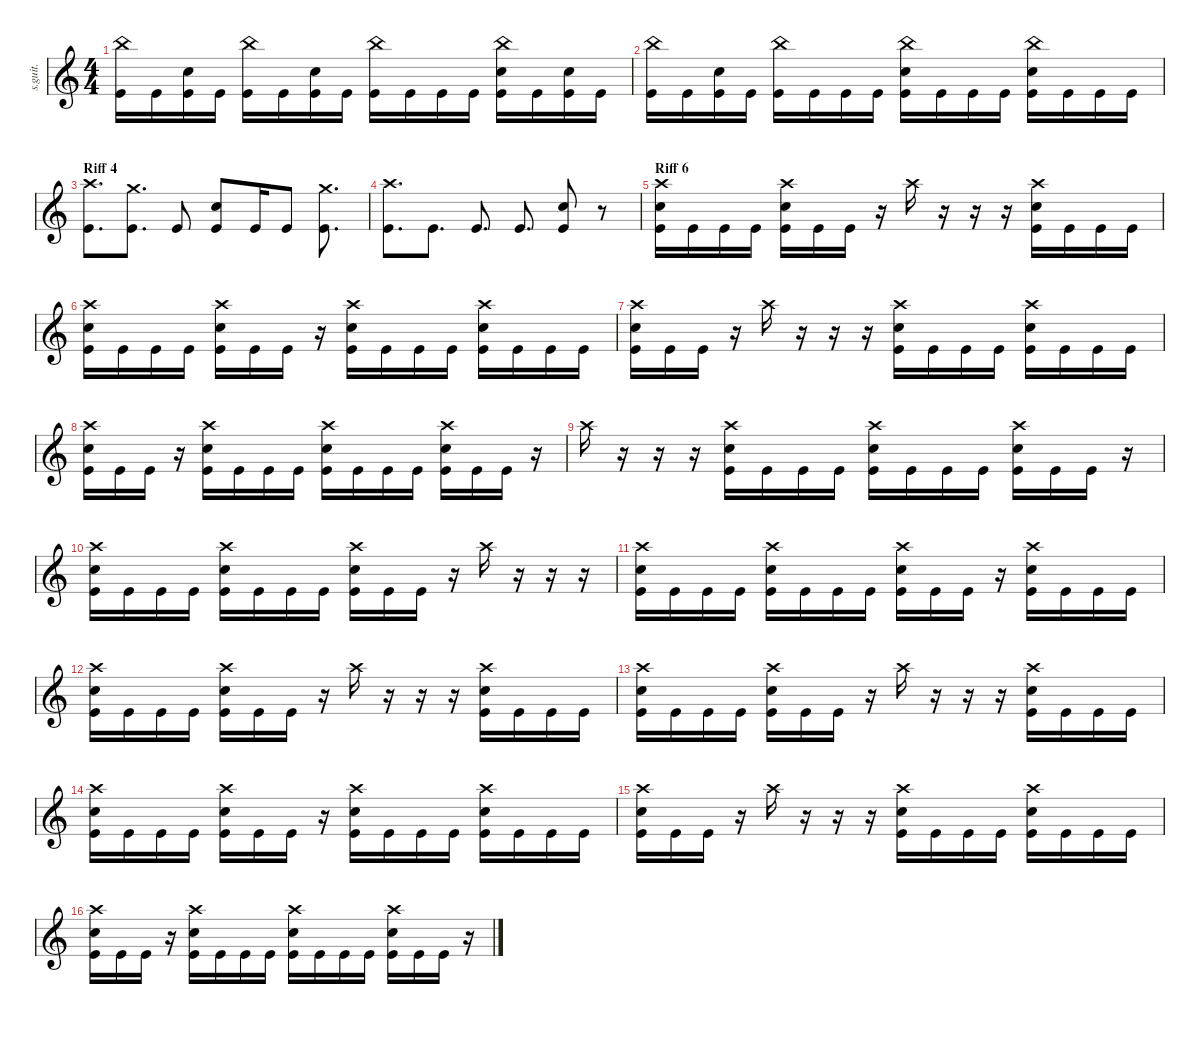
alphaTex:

\defaultSystemsLayout 4
\hideDynamics
\bracketExtendMode nobrackets
\track ("Drumkit" "s.guit.") {instrument percussion}
\staff {score}
\articulation defaults
\ts (4 4)
\tempo (133 hide)
\clef g2
\ks c
("China (hit)" "Kick (hit)").16{lyrics (0 "") lyrics (1 "") lyrics (2 "") lyrics (3 "") lyrics (4 "") dy f} "Kick (hit)".16{lyrics (0 "") lyrics (1 "") lyrics (2 "") lyrics (3 "") lyrics (4 "")} ("Snare (hit) 2" "Kick (hit)").16{lyrics (0 "") lyrics (1 "") lyrics (2 "") lyrics (3 "") lyrics (4 "")} "Kick (hit)".16{lyrics (0 "") lyrics (1 "") lyrics (2 "") lyrics (3 "") lyrics (4 "")} ("China (hit)" "Kick (hit)").16{lyrics (0 "") lyrics (1 "") lyrics (2 "") lyrics (3 "") lyrics (4 "")} "Kick (hit)".16{lyrics (0 "") lyrics (1 "") lyrics (2 "") lyrics (3 "") lyrics (4 "")} ("Snare (hit) 2" "Kick (hit)").16{lyrics (0 "") lyrics (1 "") lyrics (2 "") lyrics (3 "") lyrics (4 "")} "Kick (hit)".16{lyrics (0 "") lyrics (1 "") lyrics (2 "") lyrics (3 "") lyrics (4 "")} ("China (hit)" "Kick (hit)").16{lyrics (0 "") lyrics (1 "") lyrics (2 "") lyrics (3 "") lyrics (4 "")} "Kick (hit)".16{lyrics (0 "") lyrics (1 "") lyrics (2 "") lyrics (3 "") lyrics (4 "")} "Kick (hit)".16{lyrics (0 "") lyrics (1 "") lyrics (2 "") lyrics (3 "") lyrics (4 "")} "Kick (hit)".16{lyrics (0 "") lyrics (1 "") lyrics (2 "") lyrics (3 "") lyrics (4 "")} ("China (hit)" "Snare (hit) 2" "Kick (hit)").16{lyrics (0 "") lyrics (1 "") lyrics (2 "") lyrics (3 "") lyrics (4 "")} "Kick (hit)".16{lyrics (0 "") lyrics (1 "") lyrics (2 "") lyrics (3 "") lyrics (4 "")} ("Snare (hit) 2" "Kick (hit)").16{lyrics (0 "") lyrics (1 "") lyrics (2 "") lyrics (3 "") lyrics (4 "")} "Kick (hit)".16{lyrics (0 "") lyrics (1 "") lyrics (2 "") lyrics (3 "") lyrics (4 "")} |
("China (hit)" "Kick (hit)").16{lyrics (0 "") lyrics (1 "") lyrics (2 "") lyrics (3 "") lyrics (4 "")} "Kick (hit)".16{lyrics (0 "") lyrics (1 "") lyrics (2 "") lyrics (3 "") lyrics (4 "")} ("Snare (hit) 2" "Kick (hit)").16{lyrics (0 "") lyrics (1 "") lyrics (2 "") lyrics (3 "") lyrics (4 "")} "Kick (hit)".16{lyrics (0 "") lyrics (1 "") lyrics (2 "") lyrics (3 "") lyrics (4 "")} ("China (hit)" "Kick (hit)").16{lyrics (0 "") lyrics (1 "") lyrics (2 "") lyrics (3 "") lyrics (4 "")} "Kick (hit)".16{lyrics (0 "") lyrics (1 "") lyrics (2 "") lyrics (3 "") lyrics (4 "")} "Kick (hit)".16{lyrics (0 "") lyrics (1 "") lyrics (2 "") lyrics (3 "") lyrics (4 "")} "Kick (hit)".16{lyrics (0 "") lyrics (1 "") lyrics (2 "") lyrics (3 "") lyrics (4 "")} ("China (hit)" "Snare (hit) 2" "Kick (hit)").16{lyrics (0 "") lyrics (1 "") lyrics (2 "") lyrics (3 "") lyrics (4 "")} "Kick (hit)".16{lyrics (0 "") lyrics (1 "") lyrics (2 "") lyrics (3 "") lyrics (4 "")} "Kick (hit)".16{lyrics (0 "") lyrics (1 "") lyrics (2 "") lyrics (3 "") lyrics (4 "")} "Kick (hit)".16{lyrics (0 "") lyrics (1 "") lyrics (2 "") lyrics (3 "") lyrics (4 "")} ("China (hit)" "Snare (hit) 2" "Kick (hit)").16{lyrics (0 "") lyrics (1 "") lyrics (2 "") lyrics (3 "") lyrics (4 "")} "Kick (hit)".16{lyrics (0 "") lyrics (1 "") lyrics (2 "") lyrics (3 "") lyrics (4 "")} "Kick (hit)".16{lyrics (0 "") lyrics (1 "") lyrics (2 "") lyrics (3 "") lyrics (4 "")} "Kick (hit)".16{lyrics (0 "") lyrics (1 "") lyrics (2 "") lyrics (3 "") lyrics (4 "")} |
\section ("" "Riff 4")
("Crash high (hit)" "Kick (hit)").8{d lyrics (0 "") lyrics (1 "") lyrics (2 "") lyrics (3 "") lyrics (4 "")} ("Crash medium (hit)" "Kick (hit)").8{d lyrics (0 "") lyrics (1 "") lyrics (2 "") lyrics (3 "") lyrics (4 "")} "Kick (hit)".8{lyrics (0 "") lyrics (1 "") lyrics (2 "") lyrics (3 "") lyrics (4 "")} ("Snare (hit) 2" "Kick (hit)").8{lyrics (0 "") lyrics (1 "") lyrics (2 "") lyrics (3 "") lyrics (4 "")} "Kick (hit)".16{lyrics (0 "") lyrics (1 "") lyrics (2 "") lyrics (3 "") lyrics (4 "")} "Kick (hit)".8{lyrics (0 "") lyrics (1 "") lyrics (2 "") lyrics (3 "") lyrics (4 "")} ("Crash medium (hit)" "Kick (hit)").8{d lyrics (0 "") lyrics (1 "") lyrics (2 "") lyrics (3 "") lyrics (4 "")} |
("Crash high (hit)" "Kick (hit)").8{d lyrics (0 "") lyrics (1 "") lyrics (2 "") lyrics (3 "") lyrics (4 "")} "Kick (hit)".8{d lyrics (0 "") lyrics (1 "") lyrics (2 "") lyrics (3 "") lyrics (4 "")} "Kick (hit)".8{d lyrics (0 "") lyrics (1 "") lyrics (2 "") lyrics (3 "") lyrics (4 "")} "Kick (hit)".8{d lyrics (0 "") lyrics (1 "") lyrics (2 "") lyrics (3 "") lyrics (4 "")} ("Snare (hit) 2" "Kick (hit)").8{lyrics (0 "") lyrics (1 "") lyrics (2 "") lyrics (3 "") lyrics (4 "")} r.8 |
\section ("" "Riff 6")
("Crash high (hit)" "Snare (hit) 2" "Kick (hit)").16{lyrics (0 "") lyrics (1 "") lyrics (2 "") lyrics (3 "") lyrics (4 "")} "Kick (hit)".16{lyrics (0 "") lyrics (1 "") lyrics (2 "") lyrics (3 "") lyrics (4 "")} "Kick (hit)".16{lyrics (0 "") lyrics (1 "") lyrics (2 "") lyrics (3 "") lyrics (4 "")} "Kick (hit)".16{lyrics (0 "") lyrics (1 "") lyrics (2 "") lyrics (3 "") lyrics (4 "")} ("Crash high (hit)" "Snare (hit) 2" "Kick (hit)").16{lyrics (0 "") lyrics (1 "") lyrics (2 "") lyrics (3 "") lyrics (4 "")} "Kick (hit)".16{lyrics (0 "") lyrics (1 "") lyrics (2 "") lyrics (3 "") lyrics (4 "")} "Kick (hit)".16{lyrics (0 "") lyrics (1 "") lyrics (2 "") lyrics (3 "") lyrics (4 "")} r.16 "Crash high (hit)".16{lyrics (0 "") lyrics (1 "") lyrics (2 "") lyrics (3 "") lyrics (4 "")} r.16 r.16 r.16 ("Crash high (hit)" "Snare (hit) 2" "Kick (hit)").16{lyrics (0 "") lyrics (1 "") lyrics (2 "") lyrics (3 "") lyrics (4 "")} "Kick (hit)".16{lyrics (0 "") lyrics (1 "") lyrics (2 "") lyrics (3 "") lyrics (4 "")} "Kick (hit)".16{lyrics (0 "") lyrics (1 "") lyrics (2 "") lyrics (3 "") lyrics (4 "")} "Kick (hit)".16{lyrics (0 "") lyrics (1 "") lyrics (2 "") lyrics (3 "") lyrics (4 "")} |
("Crash high (hit)" "Snare (hit) 2" "Kick (hit)").16{lyrics (0 "") lyrics (1 "") lyrics (2 "") lyrics (3 "") lyrics (4 "")} "Kick (hit)".16{lyrics (0 "") lyrics (1 "") lyrics (2 "") lyrics (3 "") lyrics (4 "")} "Kick (hit)".16{lyrics (0 "") lyrics (1 "") lyrics (2 "") lyrics (3 "") lyrics (4 "")} "Kick (hit)".16{lyrics (0 "") lyrics (1 "") lyrics (2 "") lyrics (3 "") lyrics (4 "")} ("Crash high (hit)" "Snare (hit) 2" "Kick (hit)").16{lyrics (0 "") lyrics (1 "") lyrics (2 "") lyrics (3 "") lyrics (4 "")} "Kick (hit)".16{lyrics (0 "") lyrics (1 "") lyrics (2 "") lyrics (3 "") lyrics (4 "")} "Kick (hit)".16{lyrics (0 "") lyrics (1 "") lyrics (2 "") lyrics (3 "") lyrics (4 "")} r.16 ("Crash high (hit)" "Snare (hit) 2" "Kick (hit)").16{lyrics (0 "") lyrics (1 "") lyrics (2 "") lyrics (3 "") lyrics (4 "")} "Kick (hit)".16{lyrics (0 "") lyrics (1 "") lyrics (2 "") lyrics (3 "") lyrics (4 "")} "Kick (hit)".16{lyrics (0 "") lyrics (1 "") lyrics (2 "") lyrics (3 "") lyrics (4 "")} "Kick (hit)".16{lyrics (0 "") lyrics (1 "") lyrics (2 "") lyrics (3 "") lyrics (4 "")} ("Crash high (hit)" "Snare (hit) 2" "Kick (hit)").16{lyrics (0 "") lyrics (1 "") lyrics (2 "") lyrics (3 "") lyrics (4 "")} "Kick (hit)".16{lyrics (0 "") lyrics (1 "") lyrics (2 "") lyrics (3 "") lyrics (4 "")} "Kick (hit)".16{lyrics (0 "") lyrics (1 "") lyrics (2 "") lyrics (3 "") lyrics (4 "")} "Kick (hit)".16{lyrics (0 "") lyrics (1 "") lyrics (2 "") lyrics (3 "") lyrics (4 "")} |
("Crash high (hit)" "Snare (hit) 2" "Kick (hit)").16{lyrics (0 "") lyrics (1 "") lyrics (2 "") lyrics (3 "") lyrics (4 "")} "Kick (hit)".16{lyrics (0 "") lyrics (1 "") lyrics (2 "") lyrics (3 "") lyrics (4 "")} "Kick (hit)".16{lyrics (0 "") lyrics (1 "") lyrics (2 "") lyrics (3 "") lyrics (4 "")} r.16 "Crash high (hit)".16{lyrics (0 "") lyrics (1 "") lyrics (2 "") lyrics (3 "") lyrics (4 "")} r.16 r.16 r.16 ("Crash high (hit)" "Snare (hit) 2" "Kick (hit)").16{lyrics (0 "") lyrics (1 "") lyrics (2 "") lyrics (3 "") lyrics (4 "")} "Kick (hit)".16{lyrics (0 "") lyrics (1 "") lyrics (2 "") lyrics (3 "") lyrics (4 "")} "Kick (hit)".16{lyrics (0 "") lyrics (1 "") lyrics (2 "") lyrics (3 "") lyrics (4 "")} "Kick (hit)".16{lyrics (0 "") lyrics (1 "") lyrics (2 "") lyrics (3 "") lyrics (4 "")} ("Crash high (hit)" "Snare (hit) 2" "Kick (hit)").16{lyrics (0 "") lyrics (1 "") lyrics (2 "") lyrics (3 "") lyrics (4 "")} "Kick (hit)".16{lyrics (0 "") lyrics (1 "") lyrics (2 "") lyrics (3 "") lyrics (4 "")} "Kick (hit)".16{lyrics (0 "") lyrics (1 "") lyrics (2 "") lyrics (3 "") lyrics (4 "")} "Kick (hit)".16{lyrics (0 "") lyrics (1 "") lyrics (2 "") lyrics (3 "") lyrics (4 "")} |
("Crash high (hit)" "Snare (hit) 2" "Kick (hit)").16{lyrics (0 "") lyrics (1 "") lyrics (2 "") lyrics (3 "") lyrics (4 "")} "Kick (hit)".16{lyrics (0 "") lyrics (1 "") lyrics (2 "") lyrics (3 "") lyrics (4 "")} "Kick (hit)".16{lyrics (0 "") lyrics (1 "") lyrics (2 "") lyrics (3 "") lyrics (4 "")} r.16 ("Crash high (hit)" "Snare (hit) 2" "Kick (hit)").16{lyrics (0 "") lyrics (1 "") lyrics (2 "") lyrics (3 "") lyrics (4 "")} "Kick (hit)".16{lyrics (0 "") lyrics (1 "") lyrics (2 "") lyrics (3 "") lyrics (4 "")} "Kick (hit)".16{lyrics (0 "") lyrics (1 "") lyrics (2 "") lyrics (3 "") lyrics (4 "")} "Kick (hit)".16{lyrics (0 "") lyrics (1 "") lyrics (2 "") lyrics (3 "") lyrics (4 "")} ("Crash high (hit)" "Snare (hit) 2" "Kick (hit)").16{lyrics (0 "") lyrics (1 "") lyrics (2 "") lyrics (3 "") lyrics (4 "")} "Kick (hit)".16{lyrics (0 "") lyrics (1 "") lyrics (2 "") lyrics (3 "") lyrics (4 "")} "Kick (hit)".16{lyrics (0 "") lyrics (1 "") lyrics (2 "") lyrics (3 "") lyrics (4 "")} "Kick (hit)".16{lyrics (0 "") lyrics (1 "") lyrics (2 "") lyrics (3 "") lyrics (4 "")} ("Crash high (hit)" "Snare (hit) 2" "Kick (hit)").16{lyrics (0 "") lyrics (1 "") lyrics (2 "") lyrics (3 "") lyrics (4 "")} "Kick (hit)".16{lyrics (0 "") lyrics (1 "") lyrics (2 "") lyrics (3 "") lyrics (4 "")} "Kick (hit)".16{lyrics (0 "") lyrics (1 "") lyrics (2 "") lyrics (3 "") lyrics (4 "")} r.16 |
"Crash high (hit)".16{lyrics (0 "") lyrics (1 "") lyrics (2 "") lyrics (3 "") lyrics (4 "")} r.16 r.16 r.16 ("Crash high (hit)" "Snare (hit) 2" "Kick (hit)").16{lyrics (0 "") lyrics (1 "") lyrics (2 "") lyrics (3 "") lyrics (4 "")} "Kick (hit)".16{lyrics (0 "") lyrics (1 "") lyrics (2 "") lyrics (3 "") lyrics (4 "")} "Kick (hit)".16{lyrics (0 "") lyrics (1 "") lyrics (2 "") lyrics (3 "") lyrics (4 "")} "Kick (hit)".16{lyrics (0 "") lyrics (1 "") lyrics (2 "") lyrics (3 "") lyrics (4 "")} ("Crash high (hit)" "Snare (hit) 2" "Kick (hit)").16{lyrics (0 "") lyrics (1 "") lyrics (2 "") lyrics (3 "") lyrics (4 "")} "Kick (hit)".16{lyrics (0 "") lyrics (1 "") lyrics (2 "") lyrics (3 "") lyrics (4 "")} "Kick (hit)".16{lyrics (0 "") lyrics (1 "") lyrics (2 "") lyrics (3 "") lyrics (4 "")} "Kick (hit)".16{lyrics (0 "") lyrics (1 "") lyrics (2 "") lyrics (3 "") lyrics (4 "")} ("Crash high (hit)" "Snare (hit) 2" "Kick (hit)").16{lyrics (0 "") lyrics (1 "") lyrics (2 "") lyrics (3 "") lyrics (4 "")} "Kick (hit)".16{lyrics (0 "") lyrics (1 "") lyrics (2 "") lyrics (3 "") lyrics (4 "")} "Kick (hit)".16{lyrics (0 "") lyrics (1 "") lyrics (2 "") lyrics (3 "") lyrics (4 "")} r.16 |
("Crash high (hit)" "Snare (hit) 2" "Kick (hit)").16{lyrics (0 "") lyrics (1 "") lyrics (2 "") lyrics (3 "") lyrics (4 "")} "Kick (hit)".16{lyrics (0 "") lyrics (1 "") lyrics (2 "") lyrics (3 "") lyrics (4 "")} "Kick (hit)".16{lyrics (0 "") lyrics (1 "") lyrics (2 "") lyrics (3 "") lyrics (4 "")} "Kick (hit)".16{lyrics (0 "") lyrics (1 "") lyrics (2 "") lyrics (3 "") lyrics (4 "")} ("Crash high (hit)" "Snare (hit) 2" "Kick (hit)").16{lyrics (0 "") lyrics (1 "") lyrics (2 "") lyrics (3 "") lyrics (4 "")} "Kick (hit)".16{lyrics (0 "") lyrics (1 "") lyrics (2 "") lyrics (3 "") lyrics (4 "")} "Kick (hit)".16{lyrics (0 "") lyrics (1 "") lyrics (2 "") lyrics (3 "") lyrics (4 "")} "Kick (hit)".16{lyrics (0 "") lyrics (1 "") lyrics (2 "") lyrics (3 "") lyrics (4 "")} ("Crash high (hit)" "Snare (hit) 2" "Kick (hit)").16{lyrics (0 "") lyrics (1 "") lyrics (2 "") lyrics (3 "") lyrics (4 "")} "Kick (hit)".16{lyrics (0 "") lyrics (1 "") lyrics (2 "") lyrics (3 "") lyrics (4 "")} "Kick (hit)".16{lyrics (0 "") lyrics (1 "") lyrics (2 "") lyrics (3 "") lyrics (4 "")} r.16 "Crash high (hit)".16{lyrics (0 "") lyrics (1 "") lyrics (2 "") lyrics (3 "") lyrics (4 "")} r.16 r.16 r.16 |
("Crash high (hit)" "Snare (hit) 2" "Kick (hit)").16{lyrics (0 "") lyrics (1 "") lyrics (2 "") lyrics (3 "") lyrics (4 "")} "Kick (hit)".16{lyrics (0 "") lyrics (1 "") lyrics (2 "") lyrics (3 "") lyrics (4 "")} "Kick (hit)".16{lyrics (0 "") lyrics (1 "") lyrics (2 "") lyrics (3 "") lyrics (4 "")} "Kick (hit)".16{lyrics (0 "") lyrics (1 "") lyrics (2 "") lyrics (3 "") lyrics (4 "")} ("Crash high (hit)" "Snare (hit) 2" "Kick (hit)").16{lyrics (0 "") lyrics (1 "") lyrics (2 "") lyrics (3 "") lyrics (4 "")} "Kick (hit)".16{lyrics (0 "") lyrics (1 "") lyrics (2 "") lyrics (3 "") lyrics (4 "")} "Kick (hit)".16{lyrics (0 "") lyrics (1 "") lyrics (2 "") lyrics (3 "") lyrics (4 "")} "Kick (hit)".16{lyrics (0 "") lyrics (1 "") lyrics (2 "") lyrics (3 "") lyrics (4 "")} ("Crash high (hit)" "Snare (hit) 2" "Kick (hit)").16{lyrics (0 "") lyrics (1 "") lyrics (2 "") lyrics (3 "") lyrics (4 "")} "Kick (hit)".16{lyrics (0 "") lyrics (1 "") lyrics (2 "") lyrics (3 "") lyrics (4 "")} "Kick (hit)".16{lyrics (0 "") lyrics (1 "") lyrics (2 "") lyrics (3 "") lyrics (4 "")} r.16 ("Crash high (hit)" "Snare (hit) 2" "Kick (hit)").16{lyrics (0 "") lyrics (1 "") lyrics (2 "") lyrics (3 "") lyrics (4 "")} "Kick (hit)".16{lyrics (0 "") lyrics (1 "") lyrics (2 "") lyrics (3 "") lyrics (4 "")} "Kick (hit)".16{lyrics (0 "") lyrics (1 "") lyrics (2 "") lyrics (3 "") lyrics (4 "")} "Kick (hit)".16{lyrics (0 "") lyrics (1 "") lyrics (2 "") lyrics (3 "") lyrics (4 "")} |
("Crash high (hit)" "Snare (hit) 2" "Kick (hit)").16{lyrics (0 "") lyrics (1 "") lyrics (2 "") lyrics (3 "") lyrics (4 "")} "Kick (hit)".16{lyrics (0 "") lyrics (1 "") lyrics (2 "") lyrics (3 "") lyrics (4 "")} "Kick (hit)".16{lyrics (0 "") lyrics (1 "") lyrics (2 "") lyrics (3 "") lyrics (4 "")} "Kick (hit)".16{lyrics (0 "") lyrics (1 "") lyrics (2 "") lyrics (3 "") lyrics (4 "")} ("Crash high (hit)" "Snare (hit) 2" "Kick (hit)").16{lyrics (0 "") lyrics (1 "") lyrics (2 "") lyrics (3 "") lyrics (4 "")} "Kick (hit)".16{lyrics (0 "") lyrics (1 "") lyrics (2 "") lyrics (3 "") lyrics (4 "")} "Kick (hit)".16{lyrics (0 "") lyrics (1 "") lyrics (2 "") lyrics (3 "") lyrics (4 "")} r.16 "Crash high (hit)".16{lyrics (0 "") lyrics (1 "") lyrics (2 "") lyrics (3 "") lyrics (4 "")} r.16 r.16 r.16 ("Crash high (hit)" "Snare (hit) 2" "Kick (hit)").16{lyrics (0 "") lyrics (1 "") lyrics (2 "") lyrics (3 "") lyrics (4 "")} "Kick (hit)".16{lyrics (0 "") lyrics (1 "") lyrics (2 "") lyrics (3 "") lyrics (4 "")} "Kick (hit)".16{lyrics (0 "") lyrics (1 "") lyrics (2 "") lyrics (3 "") lyrics (4 "")} "Kick (hit)".16{lyrics (0 "") lyrics (1 "") lyrics (2 "") lyrics (3 "") lyrics (4 "")} |
("Crash high (hit)" "Snare (hit) 2" "Kick (hit)").16{lyrics (0 "") lyrics (1 "") lyrics (2 "") lyrics (3 "") lyrics (4 "")} "Kick (hit)".16{lyrics (0 "") lyrics (1 "") lyrics (2 "") lyrics (3 "") lyrics (4 "")} "Kick (hit)".16{lyrics (0 "") lyrics (1 "") lyrics (2 "") lyrics (3 "") lyrics (4 "")} "Kick (hit)".16{lyrics (0 "") lyrics (1 "") lyrics (2 "") lyrics (3 "") lyrics (4 "")} ("Crash high (hit)" "Snare (hit) 2" "Kick (hit)").16{lyrics (0 "") lyrics (1 "") lyrics (2 "") lyrics (3 "") lyrics (4 "")} "Kick (hit)".16{lyrics (0 "") lyrics (1 "") lyrics (2 "") lyrics (3 "") lyrics (4 "")} "Kick (hit)".16{lyrics (0 "") lyrics (1 "") lyrics (2 "") lyrics (3 "") lyrics (4 "")} r.16 "Crash high (hit)".16{lyrics (0 "") lyrics (1 "") lyrics (2 "") lyrics (3 "") lyrics (4 "")} r.16 r.16 r.16 ("Crash high (hit)" "Snare (hit) 2" "Kick (hit)").16{lyrics (0 "") lyrics (1 "") lyrics (2 "") lyrics (3 "") lyrics (4 "")} "Kick (hit)".16{lyrics (0 "") lyrics (1 "") lyrics (2 "") lyrics (3 "") lyrics (4 "")} "Kick (hit)".16{lyrics (0 "") lyrics (1 "") lyrics (2 "") lyrics (3 "") lyrics (4 "")} "Kick (hit)".16{lyrics (0 "") lyrics (1 "") lyrics (2 "") lyrics (3 "") lyrics (4 "")} |
("Crash high (hit)" "Snare (hit) 2" "Kick (hit)").16{lyrics (0 "") lyrics (1 "") lyrics (2 "") lyrics (3 "") lyrics (4 "")} "Kick (hit)".16{lyrics (0 "") lyrics (1 "") lyrics (2 "") lyrics (3 "") lyrics (4 "")} "Kick (hit)".16{lyrics (0 "") lyrics (1 "") lyrics (2 "") lyrics (3 "") lyrics (4 "")} "Kick (hit)".16{lyrics (0 "") lyrics (1 "") lyrics (2 "") lyrics (3 "") lyrics (4 "")} ("Crash high (hit)" "Snare (hit) 2" "Kick (hit)").16{lyrics (0 "") lyrics (1 "") lyrics (2 "") lyrics (3 "") lyrics (4 "")} "Kick (hit)".16{lyrics (0 "") lyrics (1 "") lyrics (2 "") lyrics (3 "") lyrics (4 "")} "Kick (hit)".16{lyrics (0 "") lyrics (1 "") lyrics (2 "") lyrics (3 "") lyrics (4 "")} r.16 ("Crash high (hit)" "Snare (hit) 2" "Kick (hit)").16{lyrics (0 "") lyrics (1 "") lyrics (2 "") lyrics (3 "") lyrics (4 "")} "Kick (hit)".16{lyrics (0 "") lyrics (1 "") lyrics (2 "") lyrics (3 "") lyrics (4 "")} "Kick (hit)".16{lyrics (0 "") lyrics (1 "") lyrics (2 "") lyrics (3 "") lyrics (4 "")} "Kick (hit)".16{lyrics (0 "") lyrics (1 "") lyrics (2 "") lyrics (3 "") lyrics (4 "")} ("Crash high (hit)" "Snare (hit) 2" "Kick (hit)").16{lyrics (0 "") lyrics (1 "") lyrics (2 "") lyrics (3 "") lyrics (4 "")} "Kick (hit)".16{lyrics (0 "") lyrics (1 "") lyrics (2 "") lyrics (3 "") lyrics (4 "")} "Kick (hit)".16{lyrics (0 "") lyrics (1 "") lyrics (2 "") lyrics (3 "") lyrics (4 "")} "Kick (hit)".16{lyrics (0 "") lyrics (1 "") lyrics (2 "") lyrics (3 "") lyrics (4 "")} |
("Crash high (hit)" "Snare (hit) 2" "Kick (hit)").16{lyrics (0 "") lyrics (1 "") lyrics (2 "") lyrics (3 "") lyrics (4 "")} "Kick (hit)".16{lyrics (0 "") lyrics (1 "") lyrics (2 "") lyrics (3 "") lyrics (4 "")} "Kick (hit)".16{lyrics (0 "") lyrics (1 "") lyrics (2 "") lyrics (3 "") lyrics (4 "")} r.16 "Crash high (hit)".16{lyrics (0 "") lyrics (1 "") lyrics (2 "") lyrics (3 "") lyrics (4 "")} r.16 r.16 r.16 ("Crash high (hit)" "Snare (hit) 2" "Kick (hit)").16{lyrics (0 "") lyrics (1 "") lyrics (2 "") lyrics (3 "") lyrics (4 "")} "Kick (hit)".16{lyrics (0 "") lyrics (1 "") lyrics (2 "") lyrics (3 "") lyrics (4 "")} "Kick (hit)".16{lyrics (0 "") lyrics (1 "") lyrics (2 "") lyrics (3 "") lyrics (4 "")} "Kick (hit)".16{lyrics (0 "") lyrics (1 "") lyrics (2 "") lyrics (3 "") lyrics (4 "")} ("Crash high (hit)" "Snare (hit) 2" "Kick (hit)").16{lyrics (0 "") lyrics (1 "") lyrics (2 "") lyrics (3 "") lyrics (4 "")} "Kick (hit)".16{lyrics (0 "") lyrics (1 "") lyrics (2 "") lyrics (3 "") lyrics (4 "")} "Kick (hit)".16{lyrics (0 "") lyrics (1 "") lyrics (2 "") lyrics (3 "") lyrics (4 "")} "Kick (hit)".16{lyrics (0 "") lyrics (1 "") lyrics (2 "") lyrics (3 "") lyrics (4 "")} |
("Crash high (hit)" "Snare (hit) 2" "Kick (hit)").16{lyrics (0 "") lyrics (1 "") lyrics (2 "") lyrics (3 "") lyrics (4 "")} "Kick (hit)".16{lyrics (0 "") lyrics (1 "") lyrics (2 "") lyrics (3 "") lyrics (4 "")} "Kick (hit)".16{lyrics (0 "") lyrics (1 "") lyrics (2 "") lyrics (3 "") lyrics (4 "")} r.16 ("Crash high (hit)" "Snare (hit) 2" "Kick (hit)").16{lyrics (0 "") lyrics (1 "") lyrics (2 "") lyrics (3 "") lyrics (4 "")} "Kick (hit)".16{lyrics (0 "") lyrics (1 "") lyrics (2 "") lyrics (3 "") lyrics (4 "")} "Kick (hit)".16{lyrics (0 "") lyrics (1 "") lyrics (2 "") lyrics (3 "") lyrics (4 "")} "Kick (hit)".16{lyrics (0 "") lyrics (1 "") lyrics (2 "") lyrics (3 "") lyrics (4 "")} ("Crash high (hit)" "Snare (hit) 2" "Kick (hit)").16{lyrics (0 "") lyrics (1 "") lyrics (2 "") lyrics (3 "") lyrics (4 "")} "Kick (hit)".16{lyrics (0 "") lyrics (1 "") lyrics (2 "") lyrics (3 "") lyrics (4 "")} "Kick (hit)".16{lyrics (0 "") lyrics (1 "") lyrics (2 "") lyrics (3 "") lyrics (4 "")} "Kick (hit)".16{lyrics (0 "") lyrics (1 "") lyrics (2 "") lyrics (3 "") lyrics (4 "")} ("Crash high (hit)" "Snare (hit) 2" "Kick (hit)").16{lyrics (0 "") lyrics (1 "") lyrics (2 "") lyrics (3 "") lyrics (4 "")} "Kick (hit)".16{lyrics (0 "") lyrics (1 "") lyrics (2 "") lyrics (3 "") lyrics (4 "")} "Kick (hit)".16{lyrics (0 "") lyrics (1 "") lyrics (2 "") lyrics (3 "") lyrics (4 "")} r.16
